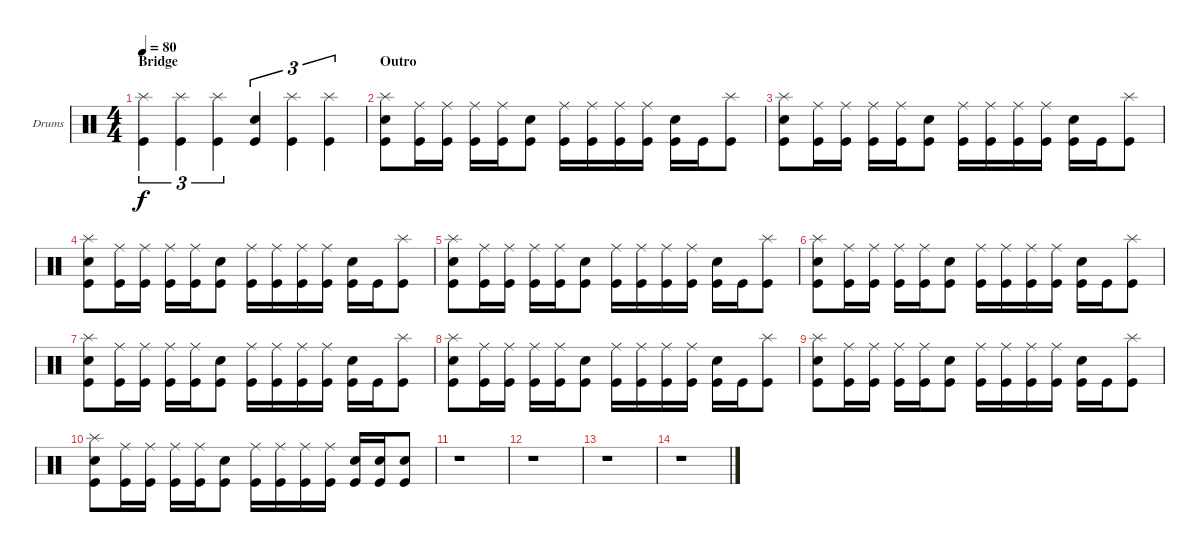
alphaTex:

\defaultSystemsLayout 4
\bracketExtendMode groupsimilarinstruments
\firstSystemTrackNameOrientation horizontal
\otherSystemsTrackNameOrientation horizontal
\track ("Jimmy DeGrasso" "Drums") {instrument percussion}
\staff {score}
\articulation defaults
\ts (4 4)
\section ("" "Bridge")
\tempo 80
\clef neutral
\scale
0.333333
\ks c
("Splash (hit)" "Kick (hit)").4{tu (3 2) dy f} ("Kick (hit)" "Splash (hit)").4{tu (3 2)} ("Splash (hit)" "Kick (hit)").4{tu (3 2)} ("Kick (hit)" "Snare (hit) 2").4{tu (3 2)} ("Splash (hit)" "Kick (hit)").4{tu (3 2)} ("Splash (hit)" "Kick (hit)").4{tu (3 2)} |
\section ("" "Outro")
\scale
0.333333 ("Snare (hit) 2" "Kick (hit)" "Splash (hit)").8 ("Kick (hit)" "Ride (middle)").16 ("Kick (hit)" "Ride (middle)").16 ("Kick (hit)" "Ride (middle)").16 ("Kick (hit)" "Ride (middle)").16 ("Kick (hit)" "Snare (hit) 2").8 ("Kick (hit)" "Ride (middle)").16 ("Kick (hit)" "Ride (middle)").16 ("Kick (hit)" "Ride (middle)").16 ("Kick (hit)" "Ride (middle)").16 ("Kick (hit)" "Snare (hit) 2").16 "Kick (hit)".16 ("Kick (hit)" "Splash (hit)").8 |
\scale
0.333333 ("Snare (hit) 2" "Kick (hit)" "Splash (hit)").8 ("Kick (hit)" "Ride (middle)").16 ("Kick (hit)" "Ride (middle)").16 ("Kick (hit)" "Ride (middle)").16 ("Kick (hit)" "Ride (middle)").16 ("Kick (hit)" "Snare (hit) 2").8 ("Kick (hit)" "Ride (middle)").16 ("Kick (hit)" "Ride (middle)").16 ("Kick (hit)" "Ride (middle)").16 ("Kick (hit)" "Ride (middle)").16 ("Kick (hit)" "Snare (hit) 2").16 "Kick (hit)".16 ("Kick (hit)" "Splash (hit)").8 |
\scale
0.333333 ("Snare (hit) 2" "Kick (hit)" "Splash (hit)").8 ("Kick (hit)" "Ride (middle)").16 ("Kick (hit)" "Ride (middle)").16 ("Kick (hit)" "Ride (middle)").16 ("Kick (hit)" "Ride (middle)").16 ("Kick (hit)" "Snare (hit) 2").8 ("Kick (hit)" "Ride (middle)").16 ("Kick (hit)" "Ride (middle)").16 ("Kick (hit)" "Ride (middle)").16 ("Kick (hit)" "Ride (middle)").16 ("Kick (hit)" "Snare (hit) 2").16 "Kick (hit)".16 ("Kick (hit)" "Splash (hit)").8 |
\scale
0.333333 ("Snare (hit) 2" "Kick (hit)" "Splash (hit)").8 ("Kick (hit)" "Ride (middle)").16 ("Kick (hit)" "Ride (middle)").16 ("Kick (hit)" "Ride (middle)").16 ("Kick (hit)" "Ride (middle)").16 ("Kick (hit)" "Snare (hit) 2").8 ("Kick (hit)" "Ride (middle)").16 ("Kick (hit)" "Ride (middle)").16 ("Kick (hit)" "Ride (middle)").16 ("Kick (hit)" "Ride (middle)").16 ("Kick (hit)" "Snare (hit) 2").16 "Kick (hit)".16 ("Kick (hit)" "Splash (hit)").8 |
\scale
0.333333 ("Snare (hit) 2" "Kick (hit)" "Splash (hit)").8 ("Kick (hit)" "Ride (middle)").16 ("Kick (hit)" "Ride (middle)").16 ("Kick (hit)" "Ride (middle)").16 ("Kick (hit)" "Ride (middle)").16 ("Kick (hit)" "Snare (hit) 2").8 ("Kick (hit)" "Ride (middle)").16 ("Kick (hit)" "Ride (middle)").16 ("Kick (hit)" "Ride (middle)").16 ("Kick (hit)" "Ride (middle)").16 ("Kick (hit)" "Snare (hit) 2").16 "Kick (hit)".16 ("Kick (hit)" "Splash (hit)").8 |
\scale
0.333333 ("Snare (hit) 2" "Kick (hit)" "Splash (hit)").8 ("Kick (hit)" "Ride (middle)").16 ("Kick (hit)" "Ride (middle)").16 ("Kick (hit)" "Ride (middle)").16 ("Kick (hit)" "Ride (middle)").16 ("Kick (hit)" "Snare (hit) 2").8 ("Kick (hit)" "Ride (middle)").16 ("Kick (hit)" "Ride (middle)").16 ("Kick (hit)" "Ride (middle)").16 ("Kick (hit)" "Ride (middle)").16 ("Kick (hit)" "Snare (hit) 2").16 "Kick (hit)".16 ("Kick (hit)" "Splash (hit)").8 |
\scale
0.333333 ("Snare (hit) 2" "Kick (hit)" "Splash (hit)").8 ("Kick (hit)" "Ride (middle)").16 ("Kick (hit)" "Ride (middle)").16 ("Kick (hit)" "Ride (middle)").16 ("Kick (hit)" "Ride (middle)").16 ("Kick (hit)" "Snare (hit) 2").8 ("Kick (hit)" "Ride (middle)").16 ("Kick (hit)" "Ride (middle)").16 ("Kick (hit)" "Ride (middle)").16 ("Kick (hit)" "Ride (middle)").16 ("Kick (hit)" "Snare (hit) 2").16 "Kick (hit)".16 ("Kick (hit)" "Splash (hit)").8 |
\scale
0.333333 ("Snare (hit) 2" "Kick (hit)" "Splash (hit)").8 ("Kick (hit)" "Ride (middle)").16 ("Kick (hit)" "Ride (middle)").16 ("Kick (hit)" "Ride (middle)").16 ("Kick (hit)" "Ride (middle)").16 ("Kick (hit)" "Snare (hit) 2").8 ("Kick (hit)" "Ride (middle)").16 ("Kick (hit)" "Ride (middle)").16 ("Kick (hit)" "Ride (middle)").16 ("Kick (hit)" "Ride (middle)").16 ("Kick (hit)" "Snare (hit) 2").16 "Kick (hit)".16 ("Kick (hit)" "Splash (hit)").8 |
\scale
0.333333 ("Snare (hit) 2" "Kick (hit)" "Splash (hit)").8 ("Kick (hit)" "Ride (middle)").16 ("Kick (hit)" "Ride (middle)").16 ("Kick (hit)" "Ride (middle)").16 ("Kick (hit)" "Ride (middle)").16 ("Kick (hit)" "Snare (hit) 2").8 ("Kick (hit)" "Ride (middle)").16 ("Kick (hit)" "Ride (middle)").16 ("Kick (hit)" "Ride (middle)").16 ("Kick (hit)" "Ride (middle)").16 ("Kick (hit)" "Snare (hit) 2").16 ("Kick (hit)" "Snare (hit) 2").16 ("Kick (hit)" "Snare (hit) 2").8 |
r.1 |
r.1 |
r.1 |
r.1
